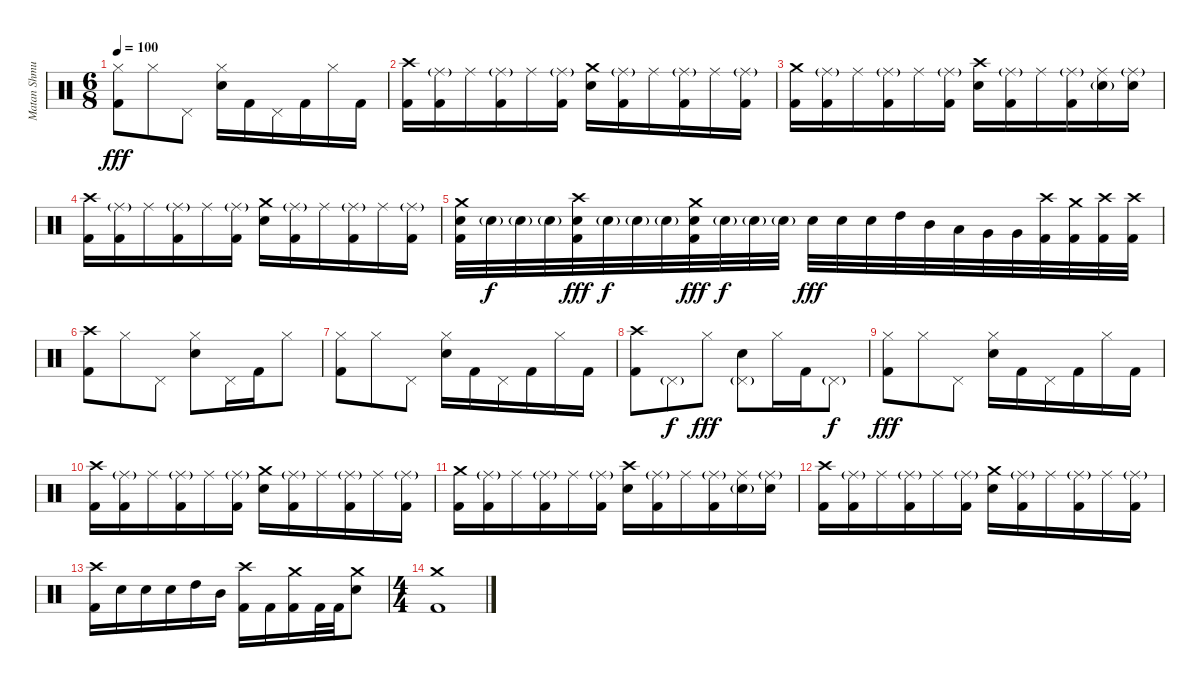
\track ("Matan Shmuely" "Matan Shmu") {instrument percussion}
\staff {score}
\articulation defaults
\ts (6 8)
\tempo 100
\clef neutral
\ks c
("Kick (hit) 2" "Hi-Hat (closed)").8{dy fff} "Hi-Hat (closed)".8 "Pedal Hi-Hat (hit)".8 ("Electric Snare (hit)" "Hi-Hat (closed)").16 "Kick (hit) 2".16 "Pedal Hi-Hat (hit)".16 "Kick (hit) 2".16 "Hi-Hat (closed)".16 "Kick (hit) 2".16 |
("Kick (hit) 2" "Crash high (hit)").16 ("Kick (hit) 2" "Ride (middle)"{g}).16 "Ride (middle)".16 ("Kick (hit) 2" "Ride (middle)"{g}).16 "Ride (middle)".16 ("Kick (hit) 2" "Ride (middle)"{g}).16 ("Electric Snare (hit)" "Crash medium (hit)").16 ("Kick (hit) 2" "Ride (middle)"{g}).16 "Ride (middle)".16 ("Kick (hit) 2" "Ride (middle)"{g}).16 "Ride (middle)".16 ("Kick (hit) 2" "Ride (middle)"{g}).16 |
("Kick (hit) 2" "Crash medium (hit)").16 ("Kick (hit) 2" "Ride (middle)"{g}).16 "Ride (middle)".16 ("Kick (hit) 2" "Ride (middle)"{g}).16 "Ride (middle)".16 ("Kick (hit) 2" "Ride (middle)"{g}).16 ("Electric Snare (hit)" "Crash high (hit)").16 ("Kick (hit) 2" "Ride (middle)"{g}).16 "Ride (middle)".16 ("Kick (hit) 2" "Ride (middle)"{g}).16 ("Electric Snare (hit)"{g} "Ride (middle)").16 ("Electric Snare (hit)" "Ride (middle)"{g}).16 |
("Kick (hit) 2" "Crash high (hit)").16 ("Kick (hit) 2" "Ride (middle)"{g}).16 "Ride (middle)".16 ("Kick (hit) 2" "Ride (middle)"{g}).16 "Ride (middle)".16 ("Kick (hit) 2" "Ride (middle)"{g}).16 ("Electric Snare (hit)" "Crash medium (hit)").16 ("Kick (hit) 2" "Ride (middle)"{g}).16 "Ride (middle)".16 ("Kick (hit) 2" "Ride (middle)"{g}).16 "Ride (middle)".16 ("Kick (hit) 2" "Ride (middle)"{g}).16 |
("Kick (hit) 2" "Electric Snare (hit)" "Crash medium (hit)").32 "Electric Snare (hit)"{g}.32{dy f} "Electric Snare (hit)"{g}.32 "Electric Snare (hit)"{g}.32 ("Kick (hit) 2" "Electric Snare (hit)" "Crash high (hit)").32{dy fff} "Electric Snare (hit)"{g}.32{dy f} "Electric Snare (hit)"{g}.32 "Electric Snare (hit)"{g}.32 ("Kick (hit) 2" "Electric Snare (hit)" "Crash medium (hit)").32{dy fff} "Electric Snare (hit)"{g}.32{dy f} "Electric Snare (hit)"{g}.32 "Electric Snare (hit)"{g}.32 "Electric Snare (hit)".32{dy fff} "Electric Snare (hit)".32 "Electric Snare (hit)".32 "High Tom (hit)".32 "Mid Tom (hit)".32 "Low Tom (hit)".32 "Very Low Tom (hit)".32 "Very Low Tom (hit)".32 ("Kick (hit) 2" "Crash high (hit)").32 ("Kick (hit) 2" "Crash medium (hit)").32 ("Kick (hit) 2" "Crash high (hit)").32 ("Kick (hit) 2" "Crash high (hit)").32 |
("Kick (hit) 2" "Crash high (hit)").8 "Hi-Hat (closed)".8 "Pedal Hi-Hat (hit)".8 ("Electric Snare (hit)" "Hi-Hat (closed)").8 "Pedal Hi-Hat (hit)".16 "Kick (hit) 2".16 "Hi-Hat (closed)".8 |
("Kick (hit) 2" "Hi-Hat (closed)").8 "Hi-Hat (closed)".8 "Pedal Hi-Hat (hit)".8 ("Electric Snare (hit)" "Hi-Hat (closed)").16 "Kick (hit) 2".16 "Pedal Hi-Hat (hit)".16 "Kick (hit) 2".16 "Hi-Hat (closed)".16 "Kick (hit) 2".16 |
("Kick (hit) 2" "Crash high (hit)").8 "Pedal Hi-Hat (hit)"{g}.8{dy f} "Hi-Hat (closed)".8{dy fff} ("Electric Snare (hit)" "Pedal Hi-Hat (hit)"{g}).8 "Hi-Hat (closed)".16 "Kick (hit) 2".16 "Pedal Hi-Hat (hit)"{g}.8{dy f} |
("Kick (hit) 2" "Hi-Hat (closed)").8{dy fff} "Hi-Hat (closed)".8 "Pedal Hi-Hat (hit)".8 ("Electric Snare (hit)" "Hi-Hat (closed)").16 "Kick (hit) 2".16 "Pedal Hi-Hat (hit)".16 "Kick (hit) 2".16 "Hi-Hat (closed)".16 "Kick (hit) 2".16 |
("Kick (hit) 2" "Crash high (hit)").16 ("Kick (hit) 2" "Ride (middle)"{g}).16 "Ride (middle)".16 ("Kick (hit) 2" "Ride (middle)"{g}).16 "Ride (middle)".16 ("Kick (hit) 2" "Ride (middle)"{g}).16 ("Electric Snare (hit)" "Crash medium (hit)").16 ("Kick (hit) 2" "Ride (middle)"{g}).16 "Ride (middle)".16 ("Kick (hit) 2" "Ride (middle)"{g}).16 "Ride (middle)".16 ("Kick (hit) 2" "Ride (middle)"{g}).16 |
("Kick (hit) 2" "Crash medium (hit)").16 ("Kick (hit) 2" "Ride (middle)"{g}).16 "Ride (middle)".16 ("Kick (hit) 2" "Ride (middle)"{g}).16 "Ride (middle)".16 ("Kick (hit) 2" "Ride (middle)"{g}).16 ("Electric Snare (hit)" "Crash high (hit)").16 ("Kick (hit) 2" "Ride (middle)"{g}).16 "Ride (middle)".16 ("Kick (hit) 2" "Ride (middle)"{g}).16 ("Electric Snare (hit)"{g} "Ride (middle)").16 ("Electric Snare (hit)" "Ride (middle)"{g}).16 |
("Kick (hit) 2" "Crash high (hit)").16 ("Kick (hit) 2" "Ride (middle)"{g}).16 "Ride (middle)".16 ("Kick (hit) 2" "Ride (middle)"{g}).16 "Ride (middle)".16 ("Kick (hit) 2" "Ride (middle)"{g}).16 ("Electric Snare (hit)" "Crash medium (hit)").16 ("Kick (hit) 2" "Ride (middle)"{g}).16 "Ride (middle)".16 ("Kick (hit) 2" "Ride (middle)"{g}).16 "Ride (middle)".16 ("Kick (hit) 2" "Ride (middle)"{g}).16 |
("Kick (hit) 2" "Crash high (hit)").16 "Electric Snare (hit)".16 "Electric Snare (hit)".16 "Electric Snare (hit)".16 "High Tom (hit)".16 "Mid Tom (hit)".16 ("Kick (hit) 2" "Crash high (hit)").16 "Kick (hit) 2".16 ("Kick (hit) 2" "Crash medium (hit)").16 "Kick (hit) 2".32 "Kick (hit) 2".32 ("Electric Snare (hit)" "Crash medium (hit)").8 |
\ts (4 4)
("Kick (hit) 2" "Crash medium (hit)").1
